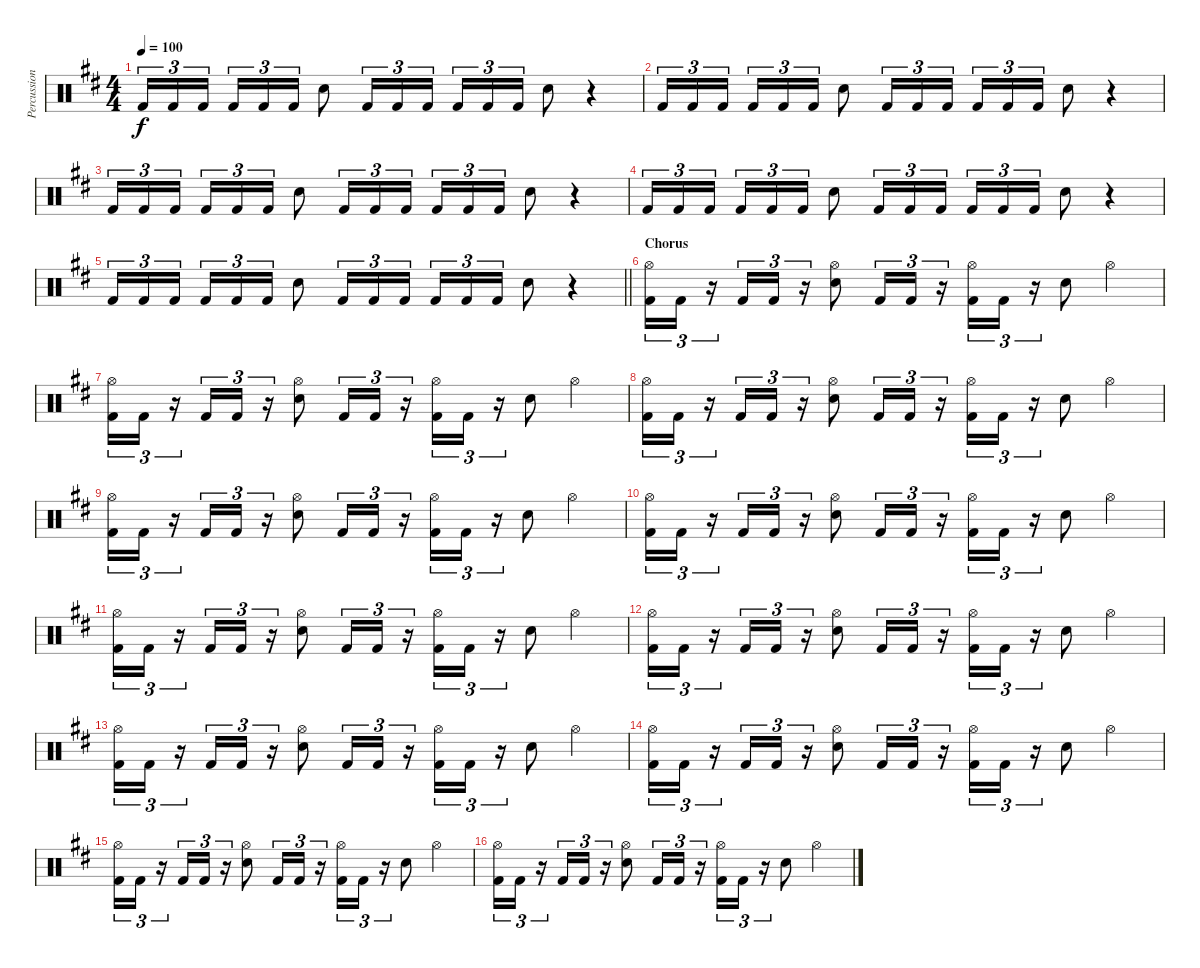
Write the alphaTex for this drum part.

\track ("Percussion" "Percussion") {instrument percussion}
\staff {score}
\articulation defaults
\ts (4 4)
\tempo 100
\clef neutral
\ks d "Kick (hit) 2".16{tu (3 2) dy f} "Kick (hit) 2".16{tu (3 2)} "Kick (hit) 2".16{tu (3 2) beam splitsecondary} "Kick (hit) 2".16{tu (3 2)} "Kick (hit) 2".16{tu (3 2)} "Kick (hit) 2".16{tu (3 2)} "Electric Snare (hit)".8 "Kick (hit) 2".16{tu (3 2)} "Kick (hit) 2".16{tu (3 2)} "Kick (hit) 2".16{tu (3 2)} "Kick (hit) 2".16{tu (3 2)} "Kick (hit) 2".16{tu (3 2)} "Kick (hit) 2".16{tu (3 2)} "Electric Snare (hit)".8
r.4 |
"Kick (hit) 2".16{tu (3 2)} "Kick (hit) 2".16{tu (3 2)} "Kick (hit) 2".16{tu (3 2) beam splitsecondary} "Kick (hit) 2".16{tu (3 2)} "Kick (hit) 2".16{tu (3 2)} "Kick (hit) 2".16{tu (3 2)} "Electric Snare (hit)".8 "Kick (hit) 2".16{tu (3 2)} "Kick (hit) 2".16{tu (3 2)} "Kick (hit) 2".16{tu (3 2)} "Kick (hit) 2".16{tu (3 2)} "Kick (hit) 2".16{tu (3 2)} "Kick (hit) 2".16{tu (3 2)} "Electric Snare (hit)".8 r.4 |
"Kick (hit) 2".16{tu (3 2)} "Kick (hit) 2".16{tu (3 2)} "Kick (hit) 2".16{tu (3 2) beam splitsecondary} "Kick (hit) 2".16{tu (3 2)} "Kick (hit) 2".16{tu (3 2)} "Kick (hit) 2".16{tu (3 2)} "Electric Snare (hit)".8 "Kick (hit) 2".16{tu (3 2)} "Kick (hit) 2".16{tu (3 2)} "Kick (hit) 2".16{tu (3 2)} "Kick (hit) 2".16{tu (3 2)} "Kick (hit) 2".16{tu (3 2)} "Kick (hit) 2".16{tu (3 2)} "Electric Snare (hit)".8 r.4 |
"Kick (hit) 2".16{tu (3 2)} "Kick (hit) 2".16{tu (3 2)} "Kick (hit) 2".16{tu (3 2) beam splitsecondary} "Kick (hit) 2".16{tu (3 2)} "Kick (hit) 2".16{tu (3 2)} "Kick (hit) 2".16{tu (3 2)} "Electric Snare (hit)".8 "Kick (hit) 2".16{tu (3 2)} "Kick (hit) 2".16{tu (3 2)} "Kick (hit) 2".16{tu (3 2)} "Kick (hit) 2".16{tu (3 2)} "Kick (hit) 2".16{tu (3 2)} "Kick (hit) 2".16{tu (3 2)} "Electric Snare (hit)".8 r.4 |
\barLineRight lightlight "Kick (hit) 2".16{tu (3 2)} "Kick (hit) 2".16{tu (3 2)} "Kick (hit) 2".16{tu (3 2) beam splitsecondary} "Kick (hit) 2".16{tu (3 2)} "Kick (hit) 2".16{tu (3 2)} "Kick (hit) 2".16{tu (3 2)} "Electric Snare (hit)".8 "Kick (hit) 2".16{tu (3 2)} "Kick (hit) 2".16{tu (3 2)} "Kick (hit) 2".16{tu (3 2)} "Kick (hit) 2".16{tu (3 2)} "Kick (hit) 2".16{tu (3 2)} "Kick (hit) 2".16{tu (3 2)} "Electric Snare (hit)".8
r.4 |
\section ("" "Chorus")
("Hi-Hat (open)" "Kick (hit) 2").16{tu (3 2)} "Kick (hit) 2".16{tu (3 2)} r.16{tu (3 2)} "Kick (hit) 2".16{tu (3 2)} "Kick (hit) 2".16{tu (3 2)} r.16{tu (3 2)} ("Hi-Hat (open)" "Electric Snare (hit)").8 "Kick (hit) 2".16{tu (3 2)} "Kick (hit) 2".16{tu (3 2)} r.16{tu (3 2)} ("Hi-Hat (open)" "Kick (hit) 2").16{tu (3 2)} "Kick (hit) 2".16{tu (3 2)} r.16{tu (3 2)} "Electric Snare (hit)".8 "Hi-Hat (open)".4 |
("Hi-Hat (open)" "Kick (hit) 2").16{tu (3 2)} "Kick (hit) 2".16{tu (3 2)} r.16{tu (3 2)} "Kick (hit) 2".16{tu (3 2)} "Kick (hit) 2".16{tu (3 2)} r.16{tu (3 2)} ("Hi-Hat (open)" "Electric Snare (hit)").8 "Kick (hit) 2".16{tu (3 2)} "Kick (hit) 2".16{tu (3 2)} r.16{tu (3 2)} ("Hi-Hat (open)" "Kick (hit) 2").16{tu (3 2)} "Kick (hit) 2".16{tu (3 2)} r.16{tu (3 2)} "Electric Snare (hit)".8 "Hi-Hat (open)".4 |
("Hi-Hat (open)" "Kick (hit) 2").16{tu (3 2)} "Kick (hit) 2".16{tu (3 2)} r.16{tu (3 2)} "Kick (hit) 2".16{tu (3 2)} "Kick (hit) 2".16{tu (3 2)} r.16{tu (3 2)} ("Hi-Hat (open)" "Electric Snare (hit)").8 "Kick (hit) 2".16{tu (3 2)} "Kick (hit) 2".16{tu (3 2)} r.16{tu (3 2)} ("Hi-Hat (open)" "Kick (hit) 2").16{tu (3 2)} "Kick (hit) 2".16{tu (3 2)} r.16{tu (3 2)} "Electric Snare (hit)".8 "Hi-Hat (open)".4 |
("Hi-Hat (open)" "Kick (hit) 2").16{tu (3 2)} "Kick (hit) 2".16{tu (3 2)} r.16{tu (3 2)} "Kick (hit) 2".16{tu (3 2)} "Kick (hit) 2".16{tu (3 2)} r.16{tu (3 2)} ("Hi-Hat (open)" "Electric Snare (hit)").8 "Kick (hit) 2".16{tu (3 2)} "Kick (hit) 2".16{tu (3 2)} r.16{tu (3 2)} ("Hi-Hat (open)" "Kick (hit) 2").16{tu (3 2)} "Kick (hit) 2".16{tu (3 2)} r.16{tu (3 2)} "Electric Snare (hit)".8 "Hi-Hat (open)".4 |
("Hi-Hat (open)" "Kick (hit) 2").16{tu (3 2)} "Kick (hit) 2".16{tu (3 2)} r.16{tu (3 2)} "Kick (hit) 2".16{tu (3 2)} "Kick (hit) 2".16{tu (3 2)} r.16{tu (3 2)} ("Hi-Hat (open)" "Electric Snare (hit)").8 "Kick (hit) 2".16{tu (3 2)} "Kick (hit) 2".16{tu (3 2)} r.16{tu (3 2)} ("Hi-Hat (open)" "Kick (hit) 2").16{tu (3 2)} "Kick (hit) 2".16{tu (3 2)} r.16{tu (3 2)} "Electric Snare (hit)".8 "Hi-Hat (open)".4 |
("Hi-Hat (open)" "Kick (hit) 2").16{tu (3 2)} "Kick (hit) 2".16{tu (3 2)} r.16{tu (3 2)} "Kick (hit) 2".16{tu (3 2)} "Kick (hit) 2".16{tu (3 2)} r.16{tu (3 2)} ("Hi-Hat (open)" "Electric Snare (hit)").8 "Kick (hit) 2".16{tu (3 2)} "Kick (hit) 2".16{tu (3 2)} r.16{tu (3 2)} ("Hi-Hat (open)" "Kick (hit) 2").16{tu (3 2)} "Kick (hit) 2".16{tu (3 2)} r.16{tu (3 2)} "Electric Snare (hit)".8 "Hi-Hat (open)".4 |
("Hi-Hat (open)" "Kick (hit) 2").16{tu (3 2)} "Kick (hit) 2".16{tu (3 2)} r.16{tu (3 2)} "Kick (hit) 2".16{tu (3 2)} "Kick (hit) 2".16{tu (3 2)} r.16{tu (3 2)} ("Hi-Hat (open)" "Electric Snare (hit)").8 "Kick (hit) 2".16{tu (3 2)} "Kick (hit) 2".16{tu (3 2)} r.16{tu (3 2)} ("Hi-Hat (open)" "Kick (hit) 2").16{tu (3 2)} "Kick (hit) 2".16{tu (3 2)} r.16{tu (3 2)} "Electric Snare (hit)".8 "Hi-Hat (open)".4 |
("Hi-Hat (open)" "Kick (hit) 2").16{tu (3 2)} "Kick (hit) 2".16{tu (3 2)} r.16{tu (3 2)} "Kick (hit) 2".16{tu (3 2)} "Kick (hit) 2".16{tu (3 2)} r.16{tu (3 2)} ("Hi-Hat (open)" "Electric Snare (hit)").8 "Kick (hit) 2".16{tu (3 2)} "Kick (hit) 2".16{tu (3 2)} r.16{tu (3 2)} ("Hi-Hat (open)" "Kick (hit) 2").16{tu (3 2)} "Kick (hit) 2".16{tu (3 2)} r.16{tu (3 2)} "Electric Snare (hit)".8 "Hi-Hat (open)".4 |
("Hi-Hat (open)" "Kick (hit) 2").16{tu (3 2)} "Kick (hit) 2".16{tu (3 2)} r.16{tu (3 2)} "Kick (hit) 2".16{tu (3 2)} "Kick (hit) 2".16{tu (3 2)} r.16{tu (3 2)} ("Hi-Hat (open)" "Electric Snare (hit)").8 "Kick (hit) 2".16{tu (3 2)} "Kick (hit) 2".16{tu (3 2)} r.16{tu (3 2)} ("Hi-Hat (open)" "Kick (hit) 2").16{tu (3 2)} "Kick (hit) 2".16{tu (3 2)} r.16{tu (3 2)} "Electric Snare (hit)".8 "Hi-Hat (open)".4 |
("Hi-Hat (open)" "Kick (hit) 2").16{tu (3 2)} "Kick (hit) 2".16{tu (3 2)} r.16{tu (3 2)} "Kick (hit) 2".16{tu (3 2)} "Kick (hit) 2".16{tu (3 2)} r.16{tu (3 2)} ("Hi-Hat (open)" "Electric Snare (hit)").8 "Kick (hit) 2".16{tu (3 2)} "Kick (hit) 2".16{tu (3 2)} r.16{tu (3 2)} ("Hi-Hat (open)" "Kick (hit) 2").16{tu (3 2)} "Kick (hit) 2".16{tu (3 2)} r.16{tu (3 2)} "Electric Snare (hit)".8 "Hi-Hat (open)".4 |
("Hi-Hat (open)" "Kick (hit) 2").16{tu (3 2)} "Kick (hit) 2".16{tu (3 2)} r.16{tu (3 2)} "Kick (hit) 2".16{tu (3 2)} "Kick (hit) 2".16{tu (3 2)} r.16{tu (3 2)} ("Hi-Hat (open)" "Electric Snare (hit)").8 "Kick (hit) 2".16{tu (3 2)} "Kick (hit) 2".16{tu (3 2)} r.16{tu (3 2)} ("Hi-Hat (open)" "Kick (hit) 2").16{tu (3 2)} "Kick (hit) 2".16{tu (3 2)} r.16{tu (3 2)} "Electric Snare (hit)".8 "Hi-Hat (open)".4
